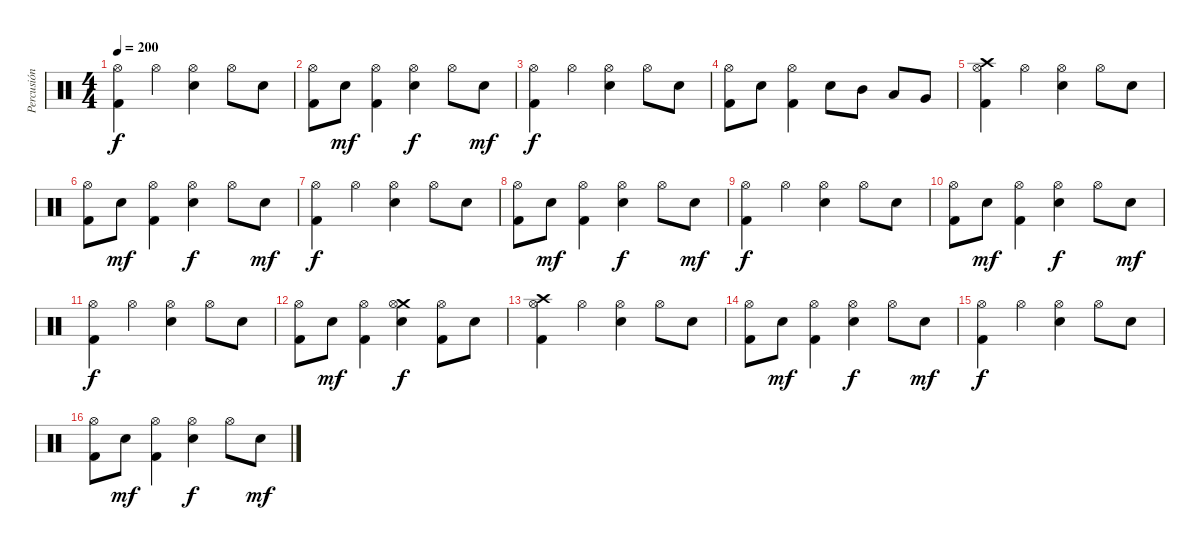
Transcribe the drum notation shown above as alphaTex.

\track ("Percusión" "Percusión") {instrument percussion}
\staff {score}
\articulation defaults
\ts (4 4)
\tempo 200
\clef neutral
\ks c
("Hi-Hat (open)" "Kick (hit) 2").4{dy f} "Hi-Hat (open)".4 ("Hi-Hat (open)" "Electric Snare (hit)").4 "Hi-Hat (open)".8 "Electric Snare (hit)".8 |
("Hi-Hat (open)" "Kick (hit) 2").8 "Electric Snare (hit)".8{dy mf} ("Hi-Hat (open)" "Kick (hit) 2").4 ("Hi-Hat (open)" "Electric Snare (hit)").4{dy f} "Hi-Hat (open)".8 "Electric Snare (hit)".8{dy mf} |
("Hi-Hat (open)" "Kick (hit) 2").4{dy f} "Hi-Hat (open)".4 ("Hi-Hat (open)" "Electric Snare (hit)").4 "Hi-Hat (open)".8 "Electric Snare (hit)".8 |
("Hi-Hat (open)" "Kick (hit) 2").8 "Electric Snare (hit)".8 ("Hi-Hat (open)" "Kick (hit) 2").4 "Electric Snare (hit)".8 "Mid Tom (hit)".8 "Low Tom (hit)".8 "Very Low Tom (hit)".8 |
("Crash high (hit)" "Hi-Hat (open)" "Kick (hit) 2").4 "Hi-Hat (open)".4 ("Hi-Hat (open)" "Electric Snare (hit)").4 "Hi-Hat (open)".8 "Electric Snare (hit)".8 |
("Hi-Hat (open)" "Kick (hit) 2").8 "Electric Snare (hit)".8{dy mf} ("Hi-Hat (open)" "Kick (hit) 2").4 ("Hi-Hat (open)" "Electric Snare (hit)").4{dy f} "Hi-Hat (open)".8 "Electric Snare (hit)".8{dy mf} |
("Hi-Hat (open)" "Kick (hit) 2").4{dy f} "Hi-Hat (open)".4 ("Hi-Hat (open)" "Electric Snare (hit)").4 "Hi-Hat (open)".8 "Electric Snare (hit)".8 |
("Hi-Hat (open)" "Kick (hit) 2").8 "Electric Snare (hit)".8{dy mf} ("Hi-Hat (open)" "Kick (hit) 2").4 ("Hi-Hat (open)" "Electric Snare (hit)").4{dy f} "Hi-Hat (open)".8 "Electric Snare (hit)".8{dy mf} |
("Hi-Hat (open)" "Kick (hit) 2").4{dy f} "Hi-Hat (open)".4 ("Hi-Hat (open)" "Electric Snare (hit)").4 "Hi-Hat (open)".8 "Electric Snare (hit)".8 |
("Hi-Hat (open)" "Kick (hit) 2").8 "Electric Snare (hit)".8{dy mf} ("Hi-Hat (open)" "Kick (hit) 2").4 ("Hi-Hat (open)" "Electric Snare (hit)").4{dy f} "Hi-Hat (open)".8 "Electric Snare (hit)".8{dy mf} |
("Hi-Hat (open)" "Kick (hit) 2").4{dy f} "Hi-Hat (open)".4 ("Hi-Hat (open)" "Electric Snare (hit)").4 "Hi-Hat (open)".8 "Electric Snare (hit)".8 |
("Hi-Hat (open)" "Kick (hit) 2").8 "Electric Snare (hit)".8{dy mf} ("Hi-Hat (open)" "Kick (hit) 2").4 ("Crash medium (hit)" "Hi-Hat (open)" "Electric Snare (hit)").4{dy f} ("Hi-Hat (open)" "Kick (hit) 2").8 "Electric Snare (hit)".8 |
("Crash high (hit)" "Hi-Hat (open)" "Kick (hit) 2").4 "Hi-Hat (open)".4 ("Hi-Hat (open)" "Electric Snare (hit)").4 "Hi-Hat (open)".8 "Electric Snare (hit)".8 |
("Hi-Hat (open)" "Kick (hit) 2").8 "Electric Snare (hit)".8{dy mf} ("Hi-Hat (open)" "Kick (hit) 2").4 ("Hi-Hat (open)" "Electric Snare (hit)").4{dy f} "Hi-Hat (open)".8 "Electric Snare (hit)".8{dy mf} |
("Hi-Hat (open)" "Kick (hit) 2").4{dy f} "Hi-Hat (open)".4 ("Hi-Hat (open)" "Electric Snare (hit)").4 "Hi-Hat (open)".8 "Electric Snare (hit)".8 |
("Hi-Hat (open)" "Kick (hit) 2").8 "Electric Snare (hit)".8{dy mf} ("Hi-Hat (open)" "Kick (hit) 2").4 ("Hi-Hat (open)" "Electric Snare (hit)").4{dy f} "Hi-Hat (open)".8 "Electric Snare (hit)".8{dy mf}
